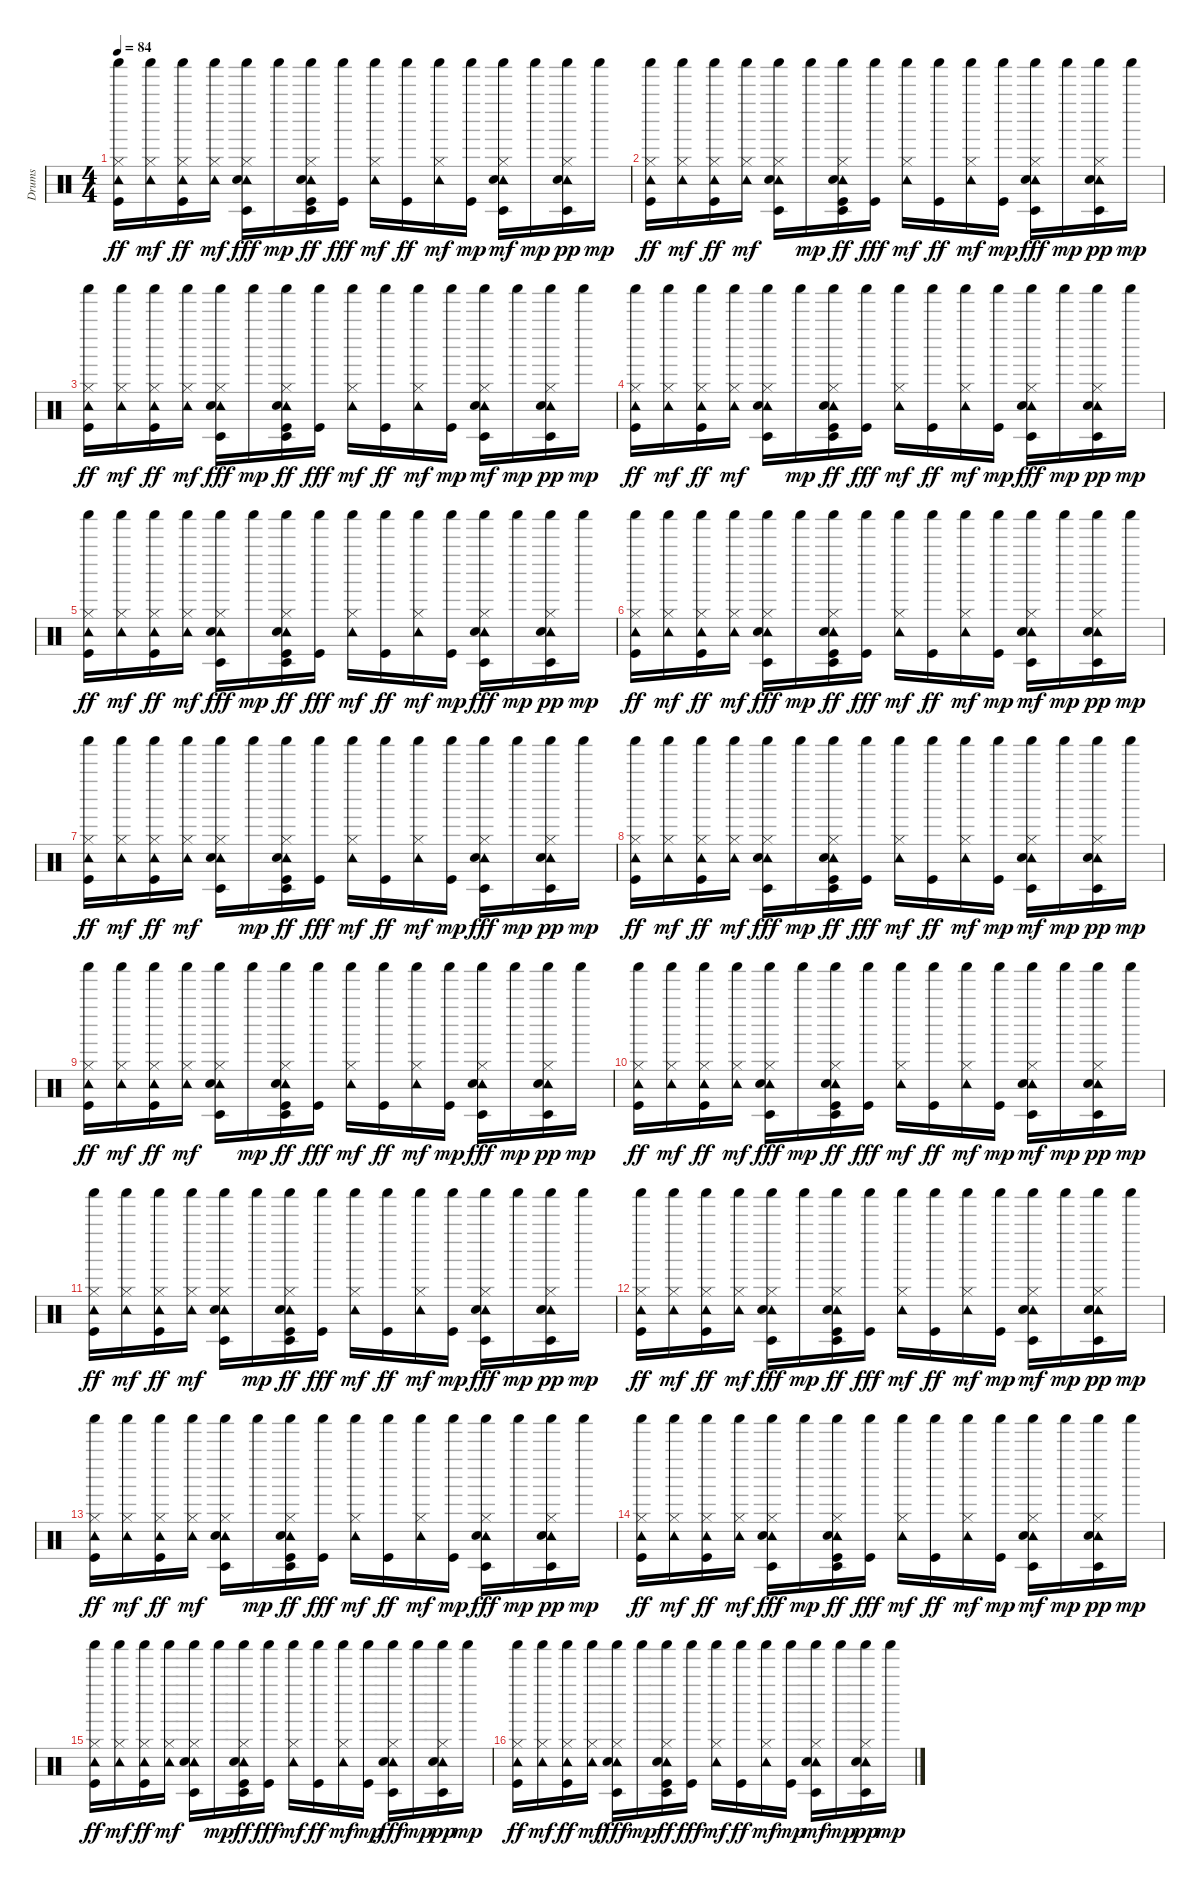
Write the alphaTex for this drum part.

\track ("Drums" "Drums") {instrument percussion}
\staff {score}
\articulation defaults
\ts (4 4)
\tempo 84
\clef neutral
\ks c
("Shaker (hit)" "Tambourine (hit)" "Hi-Hat (closed)" "Kick (hit)").16{dy ff} ("Shaker (hit)" "Tambourine (hit)" "Hi-Hat (closed)").16{dy mf} ("Shaker (hit)" "Tambourine (hit)" "Hi-Hat (closed)" "Kick (hit)").16{dy ff} ("Shaker (hit)" "Tambourine (hit)" "Hi-Hat (closed)").16{dy mf} ("Shaker (hit)" "Tambourine (hit)" "Hi-Hat (closed)" "Timbale low (hit)" "Snare (hit) 2").16{dy fff} "Shaker (hit)".16{dy mp} ("Shaker (hit)" "Tambourine (hit)" "Hi-Hat (closed)" "Timbale low (hit)" "Snare (hit) 2" "Kick (hit)").16{dy ff} ("Shaker (hit)" "Kick (hit)").16{dy fff} ("Shaker (hit)" "Tambourine (hit)" "Hi-Hat (closed)").16{dy mf} ("Shaker (hit)" "Kick (hit)").16{dy ff} ("Shaker (hit)" "Tambourine (hit)" "Hi-Hat (closed)").16{dy mf} ("Shaker (hit)" "Kick (hit)").16{dy mp} ("Shaker (hit)" "Tambourine (hit)" "Hi-Hat (closed)" "Timbale low (hit)" "Snare (hit) 2").16{dy mf} "Shaker (hit)".16{dy mp} ("Shaker (hit)" "Tambourine (hit)" "Hi-Hat (closed)" "Timbale low (hit)" "Snare (hit) 2").16{dy pp} "Shaker (hit)".16{dy mp} |
("Shaker (hit)" "Tambourine (hit)" "Hi-Hat (closed)" "Kick (hit)").16{dy ff} ("Shaker (hit)" "Tambourine (hit)" "Hi-Hat (closed)").16{dy mf} ("Shaker (hit)" "Tambourine (hit)" "Hi-Hat (closed)" "Kick (hit)").16{dy ff} ("Shaker (hit)" "Tambourine (hit)" "Hi-Hat (closed)").16{dy mf} ("Shaker (hit)" "Tambourine (hit)" "Hi-Hat (closed)" "Timbale low (hit)" "Snare (hit) 2").16 "Shaker (hit)".16{dy mp} ("Shaker (hit)" "Tambourine (hit)" "Hi-Hat (closed)" "Timbale low (hit)" "Snare (hit) 2" "Kick (hit)").16{dy ff} ("Shaker (hit)" "Kick (hit)").16{dy fff} ("Shaker (hit)" "Tambourine (hit)" "Hi-Hat (closed)").16{dy mf} ("Shaker (hit)" "Kick (hit)").16{dy ff} ("Shaker (hit)" "Tambourine (hit)" "Hi-Hat (closed)").16{dy mf} ("Shaker (hit)" "Kick (hit)").16{dy mp} ("Shaker (hit)" "Tambourine (hit)" "Hi-Hat (closed)" "Timbale low (hit)" "Snare (hit) 2").16{dy fff} "Shaker (hit)".16{dy mp} ("Shaker (hit)" "Tambourine (hit)" "Hi-Hat (closed)" "Timbale low (hit)" "Snare (hit) 2").16{dy pp} "Shaker (hit)".16{dy mp} |
("Shaker (hit)" "Tambourine (hit)" "Hi-Hat (closed)" "Kick (hit)").16{dy ff} ("Shaker (hit)" "Tambourine (hit)" "Hi-Hat (closed)").16{dy mf} ("Shaker (hit)" "Tambourine (hit)" "Hi-Hat (closed)" "Kick (hit)").16{dy ff} ("Shaker (hit)" "Tambourine (hit)" "Hi-Hat (closed)").16{dy mf} ("Shaker (hit)" "Tambourine (hit)" "Hi-Hat (closed)" "Timbale low (hit)" "Snare (hit) 2").16{dy fff} "Shaker (hit)".16{dy mp} ("Shaker (hit)" "Tambourine (hit)" "Hi-Hat (closed)" "Timbale low (hit)" "Snare (hit) 2" "Kick (hit)").16{dy ff} ("Shaker (hit)" "Kick (hit)").16{dy fff} ("Shaker (hit)" "Tambourine (hit)" "Hi-Hat (closed)").16{dy mf} ("Shaker (hit)" "Kick (hit)").16{dy ff} ("Shaker (hit)" "Tambourine (hit)" "Hi-Hat (closed)").16{dy mf} ("Shaker (hit)" "Kick (hit)").16{dy mp} ("Shaker (hit)" "Tambourine (hit)" "Hi-Hat (closed)" "Timbale low (hit)" "Snare (hit) 2").16{dy mf} "Shaker (hit)".16{dy mp} ("Shaker (hit)" "Tambourine (hit)" "Hi-Hat (closed)" "Timbale low (hit)" "Snare (hit) 2").16{dy pp} "Shaker (hit)".16{dy mp} |
("Shaker (hit)" "Tambourine (hit)" "Hi-Hat (closed)" "Kick (hit)").16{dy ff} ("Shaker (hit)" "Tambourine (hit)" "Hi-Hat (closed)").16{dy mf} ("Shaker (hit)" "Tambourine (hit)" "Hi-Hat (closed)" "Kick (hit)").16{dy ff} ("Shaker (hit)" "Tambourine (hit)" "Hi-Hat (closed)").16{dy mf} ("Shaker (hit)" "Tambourine (hit)" "Hi-Hat (closed)" "Timbale low (hit)" "Snare (hit) 2").16 "Shaker (hit)".16{dy mp} ("Shaker (hit)" "Tambourine (hit)" "Hi-Hat (closed)" "Timbale low (hit)" "Snare (hit) 2" "Kick (hit)").16{dy ff} ("Shaker (hit)" "Kick (hit)").16{dy fff} ("Shaker (hit)" "Tambourine (hit)" "Hi-Hat (closed)").16{dy mf} ("Shaker (hit)" "Kick (hit)").16{dy ff} ("Shaker (hit)" "Tambourine (hit)" "Hi-Hat (closed)").16{dy mf} ("Shaker (hit)" "Kick (hit)").16{dy mp} ("Shaker (hit)" "Tambourine (hit)" "Hi-Hat (closed)" "Timbale low (hit)" "Snare (hit) 2").16{dy fff} "Shaker (hit)".16{dy mp} ("Shaker (hit)" "Hi-Hat (closed)" "Tambourine (hit)" "Timbale low (hit)" "Snare (hit) 2").16{dy pp} "Shaker (hit)".16{dy mp} |
("Shaker (hit)" "Tambourine (hit)" "Hi-Hat (closed)" "Kick (hit)").16{dy ff} ("Shaker (hit)" "Tambourine (hit)" "Hi-Hat (closed)").16{dy mf} ("Shaker (hit)" "Tambourine (hit)" "Hi-Hat (closed)" "Kick (hit)").16{dy ff} ("Shaker (hit)" "Tambourine (hit)" "Hi-Hat (closed)").16{dy mf} ("Shaker (hit)" "Tambourine (hit)" "Hi-Hat (closed)" "Timbale low (hit)" "Snare (hit) 2").16{dy fff} "Shaker (hit)".16{dy mp} ("Shaker (hit)" "Tambourine (hit)" "Hi-Hat (closed)" "Timbale low (hit)" "Snare (hit) 2" "Kick (hit)").16{dy ff} ("Shaker (hit)" "Kick (hit)").16{dy fff} ("Shaker (hit)" "Tambourine (hit)" "Hi-Hat (closed)").16{dy mf} ("Shaker (hit)" "Kick (hit)").16{dy ff} ("Shaker (hit)" "Tambourine (hit)" "Hi-Hat (closed)").16{dy mf} ("Shaker (hit)" "Kick (hit)").16{dy mp} ("Shaker (hit)" "Timbale low (hit)" "Tambourine (hit)" "Hi-Hat (closed)" "Snare (hit) 2").16{dy fff} "Shaker (hit)".16{dy mp} ("Shaker (hit)" "Timbale low (hit)" "Tambourine (hit)" "Hi-Hat (closed)" "Snare (hit) 2").16{dy pp} "Shaker (hit)".16{dy mp} |
("Shaker (hit)" "Tambourine (hit)" "Hi-Hat (closed)" "Kick (hit)").16{dy ff} ("Shaker (hit)" "Tambourine (hit)" "Hi-Hat (closed)").16{dy mf} ("Shaker (hit)" "Tambourine (hit)" "Hi-Hat (closed)" "Kick (hit)").16{dy ff} ("Shaker (hit)" "Tambourine (hit)" "Hi-Hat (closed)").16{dy mf} ("Shaker (hit)" "Hi-Hat (closed)" "Tambourine (hit)" "Timbale low (hit)" "Snare (hit) 2").16{dy fff} "Shaker (hit)".16{dy mp} ("Shaker (hit)" "Tambourine (hit)" "Hi-Hat (closed)" "Timbale low (hit)" "Snare (hit) 2" "Kick (hit)").16{dy ff} ("Shaker (hit)" "Kick (hit)").16{dy fff} ("Shaker (hit)" "Tambourine (hit)" "Hi-Hat (closed)").16{dy mf} ("Shaker (hit)" "Kick (hit)").16{dy ff} ("Shaker (hit)" "Tambourine (hit)" "Hi-Hat (closed)").16{dy mf} ("Shaker (hit)" "Kick (hit)").16{dy mp} ("Shaker (hit)" "Tambourine (hit)" "Hi-Hat (closed)" "Timbale low (hit)" "Snare (hit) 2").16{dy mf} "Shaker (hit)".16{dy mp} ("Shaker (hit)" "Tambourine (hit)" "Hi-Hat (closed)" "Timbale low (hit)" "Snare (hit) 2").16{dy pp} "Shaker (hit)".16{dy mp} |
("Shaker (hit)" "Tambourine (hit)" "Hi-Hat (closed)" "Kick (hit)").16{dy ff} ("Shaker (hit)" "Tambourine (hit)" "Hi-Hat (closed)").16{dy mf} ("Shaker (hit)" "Tambourine (hit)" "Hi-Hat (closed)" "Kick (hit)").16{dy ff} ("Shaker (hit)" "Tambourine (hit)" "Hi-Hat (closed)").16{dy mf} ("Shaker (hit)" "Tambourine (hit)" "Hi-Hat (closed)" "Timbale low (hit)" "Snare (hit) 2").16 "Shaker (hit)".16{dy mp} ("Shaker (hit)" "Tambourine (hit)" "Hi-Hat (closed)" "Timbale low (hit)" "Snare (hit) 2" "Kick (hit)").16{dy ff} ("Shaker (hit)" "Kick (hit)").16{dy fff} ("Shaker (hit)" "Tambourine (hit)" "Hi-Hat (closed)").16{dy mf} ("Shaker (hit)" "Kick (hit)").16{dy ff} ("Shaker (hit)" "Tambourine (hit)" "Hi-Hat (closed)").16{dy mf} ("Shaker (hit)" "Kick (hit)").16{dy mp} ("Shaker (hit)" "Tambourine (hit)" "Hi-Hat (closed)" "Timbale low (hit)" "Snare (hit) 2").16{dy fff} "Shaker (hit)".16{dy mp} ("Shaker (hit)" "Tambourine (hit)" "Hi-Hat (closed)" "Timbale low (hit)" "Snare (hit) 2").16{dy pp} "Shaker (hit)".16{dy mp} |
("Shaker (hit)" "Tambourine (hit)" "Hi-Hat (closed)" "Kick (hit)").16{dy ff} ("Shaker (hit)" "Tambourine (hit)" "Hi-Hat (closed)").16{dy mf} ("Shaker (hit)" "Tambourine (hit)" "Hi-Hat (closed)" "Kick (hit)").16{dy ff} ("Shaker (hit)" "Tambourine (hit)" "Hi-Hat (closed)").16{dy mf} ("Shaker (hit)" "Tambourine (hit)" "Hi-Hat (closed)" "Timbale low (hit)" "Snare (hit) 2").16{dy fff} "Shaker (hit)".16{dy mp} ("Shaker (hit)" "Tambourine (hit)" "Hi-Hat (closed)" "Timbale low (hit)" "Snare (hit) 2" "Kick (hit)").16{dy ff} ("Shaker (hit)" "Kick (hit)").16{dy fff} ("Shaker (hit)" "Tambourine (hit)" "Hi-Hat (closed)").16{dy mf} ("Shaker (hit)" "Kick (hit)").16{dy ff} ("Shaker (hit)" "Tambourine (hit)" "Hi-Hat (closed)").16{dy mf} ("Shaker (hit)" "Kick (hit)").16{dy mp} ("Shaker (hit)" "Tambourine (hit)" "Hi-Hat (closed)" "Timbale low (hit)" "Snare (hit) 2").16{dy mf} "Shaker (hit)".16{dy mp} ("Shaker (hit)" "Tambourine (hit)" "Hi-Hat (closed)" "Timbale low (hit)" "Snare (hit) 2").16{dy pp} "Shaker (hit)".16{dy mp} |
("Shaker (hit)" "Tambourine (hit)" "Hi-Hat (closed)" "Kick (hit)").16{dy ff} ("Shaker (hit)" "Tambourine (hit)" "Hi-Hat (closed)").16{dy mf} ("Shaker (hit)" "Tambourine (hit)" "Hi-Hat (closed)" "Kick (hit)").16{dy ff} ("Shaker (hit)" "Tambourine (hit)" "Hi-Hat (closed)").16{dy mf} ("Shaker (hit)" "Tambourine (hit)" "Hi-Hat (closed)" "Timbale low (hit)" "Snare (hit) 2").16 "Shaker (hit)".16{dy mp} ("Shaker (hit)" "Tambourine (hit)" "Hi-Hat (closed)" "Timbale low (hit)" "Snare (hit) 2" "Kick (hit)").16{dy ff} ("Shaker (hit)" "Kick (hit)").16{dy fff} ("Shaker (hit)" "Tambourine (hit)" "Hi-Hat (closed)").16{dy mf} ("Shaker (hit)" "Kick (hit)").16{dy ff} ("Shaker (hit)" "Tambourine (hit)" "Hi-Hat (closed)").16{dy mf} ("Shaker (hit)" "Kick (hit)").16{dy mp} ("Shaker (hit)" "Tambourine (hit)" "Hi-Hat (closed)" "Timbale low (hit)" "Snare (hit) 2").16{dy fff} "Shaker (hit)".16{dy mp} ("Shaker (hit)" "Tambourine (hit)" "Hi-Hat (closed)" "Timbale low (hit)" "Snare (hit) 2").16{dy pp} "Shaker (hit)".16{dy mp} |
("Shaker (hit)" "Tambourine (hit)" "Hi-Hat (closed)" "Kick (hit)").16{dy ff} ("Shaker (hit)" "Tambourine (hit)" "Hi-Hat (closed)").16{dy mf} ("Shaker (hit)" "Tambourine (hit)" "Hi-Hat (closed)" "Kick (hit)").16{dy ff} ("Shaker (hit)" "Tambourine (hit)" "Hi-Hat (closed)").16{dy mf} ("Shaker (hit)" "Tambourine (hit)" "Hi-Hat (closed)" "Timbale low (hit)" "Snare (hit) 2").16{dy fff} "Shaker (hit)".16{dy mp} ("Shaker (hit)" "Tambourine (hit)" "Hi-Hat (closed)" "Timbale low (hit)" "Snare (hit) 2" "Kick (hit)").16{dy ff} ("Shaker (hit)" "Kick (hit)").16{dy fff} ("Shaker (hit)" "Tambourine (hit)" "Hi-Hat (closed)").16{dy mf} ("Shaker (hit)" "Kick (hit)").16{dy ff} ("Shaker (hit)" "Tambourine (hit)" "Hi-Hat (closed)").16{dy mf} ("Shaker (hit)" "Kick (hit)").16{dy mp} ("Shaker (hit)" "Tambourine (hit)" "Hi-Hat (closed)" "Timbale low (hit)" "Snare (hit) 2").16{dy mf} "Shaker (hit)".16{dy mp} ("Shaker (hit)" "Tambourine (hit)" "Hi-Hat (closed)" "Timbale low (hit)" "Snare (hit) 2").16{dy pp} "Shaker (hit)".16{dy mp} |
("Shaker (hit)" "Tambourine (hit)" "Hi-Hat (closed)" "Kick (hit)").16{dy ff} ("Shaker (hit)" "Tambourine (hit)" "Hi-Hat (closed)").16{dy mf} ("Shaker (hit)" "Tambourine (hit)" "Hi-Hat (closed)" "Kick (hit)").16{dy ff} ("Shaker (hit)" "Tambourine (hit)" "Hi-Hat (closed)").16{dy mf} ("Shaker (hit)" "Tambourine (hit)" "Hi-Hat (closed)" "Timbale low (hit)" "Snare (hit) 2").16 "Shaker (hit)".16{dy mp} ("Shaker (hit)" "Tambourine (hit)" "Hi-Hat (closed)" "Timbale low (hit)" "Snare (hit) 2" "Kick (hit)").16{dy ff} ("Shaker (hit)" "Kick (hit)").16{dy fff} ("Shaker (hit)" "Tambourine (hit)" "Hi-Hat (closed)").16{dy mf} ("Shaker (hit)" "Kick (hit)").16{dy ff} ("Shaker (hit)" "Tambourine (hit)" "Hi-Hat (closed)").16{dy mf} ("Shaker (hit)" "Kick (hit)").16{dy mp} ("Shaker (hit)" "Tambourine (hit)" "Hi-Hat (closed)" "Timbale low (hit)" "Snare (hit) 2").16{dy fff} "Shaker (hit)".16{dy mp} ("Shaker (hit)" "Tambourine (hit)" "Hi-Hat (closed)" "Timbale low (hit)" "Snare (hit) 2").16{dy pp} "Shaker (hit)".16{dy mp} |
("Shaker (hit)" "Tambourine (hit)" "Hi-Hat (closed)" "Kick (hit)").16{dy ff} ("Shaker (hit)" "Tambourine (hit)" "Hi-Hat (closed)").16{dy mf} ("Shaker (hit)" "Tambourine (hit)" "Hi-Hat (closed)" "Kick (hit)").16{dy ff} ("Shaker (hit)" "Tambourine (hit)" "Hi-Hat (closed)").16{dy mf} ("Shaker (hit)" "Tambourine (hit)" "Hi-Hat (closed)" "Timbale low (hit)" "Snare (hit) 2").16{dy fff} "Shaker (hit)".16{dy mp} ("Shaker (hit)" "Tambourine (hit)" "Hi-Hat (closed)" "Timbale low (hit)" "Snare (hit) 2" "Kick (hit)").16{dy ff} ("Shaker (hit)" "Kick (hit)").16{dy fff} ("Shaker (hit)" "Tambourine (hit)" "Hi-Hat (closed)").16{dy mf} ("Shaker (hit)" "Kick (hit)").16{dy ff} ("Shaker (hit)" "Tambourine (hit)" "Hi-Hat (closed)").16{dy mf} ("Shaker (hit)" "Kick (hit)").16{dy mp} ("Shaker (hit)" "Tambourine (hit)" "Hi-Hat (closed)" "Timbale low (hit)" "Snare (hit) 2").16{dy mf} "Shaker (hit)".16{dy mp} ("Shaker (hit)" "Tambourine (hit)" "Hi-Hat (closed)" "Timbale low (hit)" "Snare (hit) 2").16{dy pp} "Shaker (hit)".16{dy mp} |
("Shaker (hit)" "Tambourine (hit)" "Hi-Hat (closed)" "Kick (hit)").16{dy ff} ("Shaker (hit)" "Tambourine (hit)" "Hi-Hat (closed)").16{dy mf} ("Shaker (hit)" "Tambourine (hit)" "Hi-Hat (closed)" "Kick (hit)").16{dy ff} ("Shaker (hit)" "Tambourine (hit)" "Hi-Hat (closed)").16{dy mf} ("Shaker (hit)" "Tambourine (hit)" "Hi-Hat (closed)" "Timbale low (hit)" "Snare (hit) 2").16 "Shaker (hit)".16{dy mp} ("Shaker (hit)" "Tambourine (hit)" "Hi-Hat (closed)" "Timbale low (hit)" "Snare (hit) 2" "Kick (hit)").16{dy ff} ("Shaker (hit)" "Kick (hit)").16{dy fff} ("Shaker (hit)" "Tambourine (hit)" "Hi-Hat (closed)").16{dy mf} ("Shaker (hit)" "Kick (hit)").16{dy ff} ("Shaker (hit)" "Tambourine (hit)" "Hi-Hat (closed)").16{dy mf} ("Shaker (hit)" "Kick (hit)").16{dy mp} ("Shaker (hit)" "Tambourine (hit)" "Hi-Hat (closed)" "Timbale low (hit)" "Snare (hit) 2").16{dy fff} "Shaker (hit)".16{dy mp} ("Shaker (hit)" "Tambourine (hit)" "Hi-Hat (closed)" "Timbale low (hit)" "Snare (hit) 2").16{dy pp} "Shaker (hit)".16{dy mp} |
("Shaker (hit)" "Tambourine (hit)" "Hi-Hat (closed)" "Kick (hit)").16{dy ff} ("Shaker (hit)" "Tambourine (hit)" "Hi-Hat (closed)").16{dy mf} ("Shaker (hit)" "Tambourine (hit)" "Hi-Hat (closed)" "Kick (hit)").16{dy ff} ("Shaker (hit)" "Tambourine (hit)" "Hi-Hat (closed)").16{dy mf} ("Shaker (hit)" "Tambourine (hit)" "Hi-Hat (closed)" "Timbale low (hit)" "Snare (hit) 2").16{dy fff} "Shaker (hit)".16{dy mp} ("Shaker (hit)" "Tambourine (hit)" "Hi-Hat (closed)" "Timbale low (hit)" "Snare (hit) 2" "Kick (hit)").16{dy ff} ("Shaker (hit)" "Kick (hit)").16{dy fff} ("Shaker (hit)" "Tambourine (hit)" "Hi-Hat (closed)").16{dy mf} ("Shaker (hit)" "Kick (hit)").16{dy ff} ("Shaker (hit)" "Tambourine (hit)" "Hi-Hat (closed)").16{dy mf} ("Shaker (hit)" "Kick (hit)").16{dy mp} ("Shaker (hit)" "Tambourine (hit)" "Hi-Hat (closed)" "Timbale low (hit)" "Snare (hit) 2").16{dy mf} "Shaker (hit)".16{dy mp} ("Shaker (hit)" "Tambourine (hit)" "Hi-Hat (closed)" "Timbale low (hit)" "Snare (hit) 2").16{dy pp} "Shaker (hit)".16{dy mp} |
("Shaker (hit)" "Tambourine (hit)" "Hi-Hat (closed)" "Kick (hit)").16{dy ff} ("Shaker (hit)" "Tambourine (hit)" "Hi-Hat (closed)").16{dy mf} ("Shaker (hit)" "Tambourine (hit)" "Hi-Hat (closed)" "Kick (hit)").16{dy ff} ("Shaker (hit)" "Tambourine (hit)" "Hi-Hat (closed)").16{dy mf} ("Shaker (hit)" "Tambourine (hit)" "Hi-Hat (closed)" "Timbale low (hit)" "Snare (hit) 2").16 "Shaker (hit)".16{dy mp} ("Shaker (hit)" "Tambourine (hit)" "Hi-Hat (closed)" "Timbale low (hit)" "Snare (hit) 2" "Kick (hit)").16{dy ff} ("Shaker (hit)" "Kick (hit)").16{dy fff} ("Shaker (hit)" "Tambourine (hit)" "Hi-Hat (closed)").16{dy mf} ("Shaker (hit)" "Kick (hit)").16{dy ff} ("Shaker (hit)" "Tambourine (hit)" "Hi-Hat (closed)").16{dy mf} ("Shaker (hit)" "Kick (hit)").16{dy mp} ("Shaker (hit)" "Tambourine (hit)" "Hi-Hat (closed)" "Timbale low (hit)" "Snare (hit) 2").16{dy fff} "Shaker (hit)".16{dy mp} ("Shaker (hit)" "Tambourine (hit)" "Hi-Hat (closed)" "Timbale low (hit)" "Snare (hit) 2").16{dy pp} "Shaker (hit)".16{dy mp} |
("Shaker (hit)" "Tambourine (hit)" "Hi-Hat (closed)" "Kick (hit)").16{dy ff} ("Shaker (hit)" "Tambourine (hit)" "Hi-Hat (closed)").16{dy mf} ("Shaker (hit)" "Tambourine (hit)" "Hi-Hat (closed)" "Kick (hit)").16{dy ff} ("Shaker (hit)" "Tambourine (hit)" "Hi-Hat (closed)").16{dy mf} ("Shaker (hit)" "Tambourine (hit)" "Hi-Hat (closed)" "Timbale low (hit)" "Snare (hit) 2").16{dy fff} "Shaker (hit)".16{dy mp} ("Shaker (hit)" "Tambourine (hit)" "Hi-Hat (closed)" "Timbale low (hit)" "Snare (hit) 2" "Kick (hit)").16{dy ff} ("Shaker (hit)" "Kick (hit)").16{dy fff} ("Shaker (hit)" "Tambourine (hit)" "Hi-Hat (closed)").16{dy mf} ("Shaker (hit)" "Kick (hit)").16{dy ff} ("Shaker (hit)" "Tambourine (hit)" "Hi-Hat (closed)").16{dy mf} ("Shaker (hit)" "Kick (hit)").16{dy mp} ("Shaker (hit)" "Tambourine (hit)" "Hi-Hat (closed)" "Timbale low (hit)" "Snare (hit) 2").16{dy mf} "Shaker (hit)".16{dy mp} ("Shaker (hit)" "Tambourine (hit)" "Hi-Hat (closed)" "Timbale low (hit)" "Snare (hit) 2").16{dy pp} "Shaker (hit)".16{dy mp}
